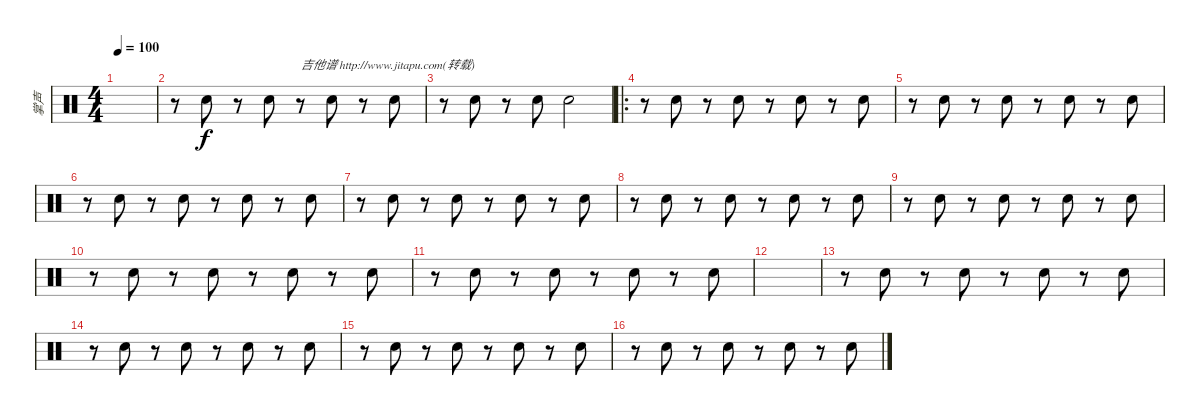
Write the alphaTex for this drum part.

\track ("掌声" "掌声") {instrument percussion}
\staff {score}
\articulation defaults
\ts (4 4)
\tempo 100
\clef neutral
\ks c
|
r.8 "Hand Clap (hit)".8 r.8 "Hand Clap (hit)".8 r.8{txt "吉他谱 http://www.jitapu.com(转载)"} "Hand Clap (hit)".8 r.8 "Hand Clap (hit)".8 |
r.8 "Hand Clap (hit)".8 r.8 "Hand Clap (hit)".8 "Hand Clap (hit)".2 |
\ro
r.8 "Hand Clap (hit)".8 r.8 "Hand Clap (hit)".8 r.8 "Hand Clap (hit)".8 r.8 "Hand Clap (hit)".8 |
r.8 "Hand Clap (hit)".8 r.8 "Hand Clap (hit)".8 r.8 "Hand Clap (hit)".8 r.8 "Hand Clap (hit)".8 |
r.8 "Hand Clap (hit)".8 r.8 "Hand Clap (hit)".8 r.8 "Hand Clap (hit)".8 r.8 "Hand Clap (hit)".8 |
r.8 "Hand Clap (hit)".8 r.8 "Hand Clap (hit)".8 r.8 "Hand Clap (hit)".8 r.8 "Hand Clap (hit)".8 |
r.8 "Hand Clap (hit)".8 r.8 "Hand Clap (hit)".8 r.8 "Hand Clap (hit)".8 r.8 "Hand Clap (hit)".8 |
r.8 "Hand Clap (hit)".8 r.8 "Hand Clap (hit)".8 r.8 "Hand Clap (hit)".8 r.8 "Hand Clap (hit)".8 |
r.8 "Hand Clap (hit)".8 r.8 "Hand Clap (hit)".8 r.8 "Hand Clap (hit)".8 r.8 "Hand Clap (hit)".8 |
r.8 "Hand Clap (hit)".8 r.8 "Hand Clap (hit)".8 r.8 "Hand Clap (hit)".8 r.8 "Hand Clap (hit)".8 |
|
r.8 "Hand Clap (hit)".8 r.8 "Hand Clap (hit)".8 r.8 "Hand Clap (hit)".8 r.8 "Hand Clap (hit)".8 |
r.8 "Hand Clap (hit)".8 r.8 "Hand Clap (hit)".8 r.8 "Hand Clap (hit)".8 r.8 "Hand Clap (hit)".8 |
r.8 "Hand Clap (hit)".8 r.8 "Hand Clap (hit)".8 r.8 "Hand Clap (hit)".8 r.8 "Hand Clap (hit)".8 |
r.8 "Hand Clap (hit)".8 r.8 "Hand Clap (hit)".8 r.8 "Hand Clap (hit)".8 r.8 "Hand Clap (hit)".8
